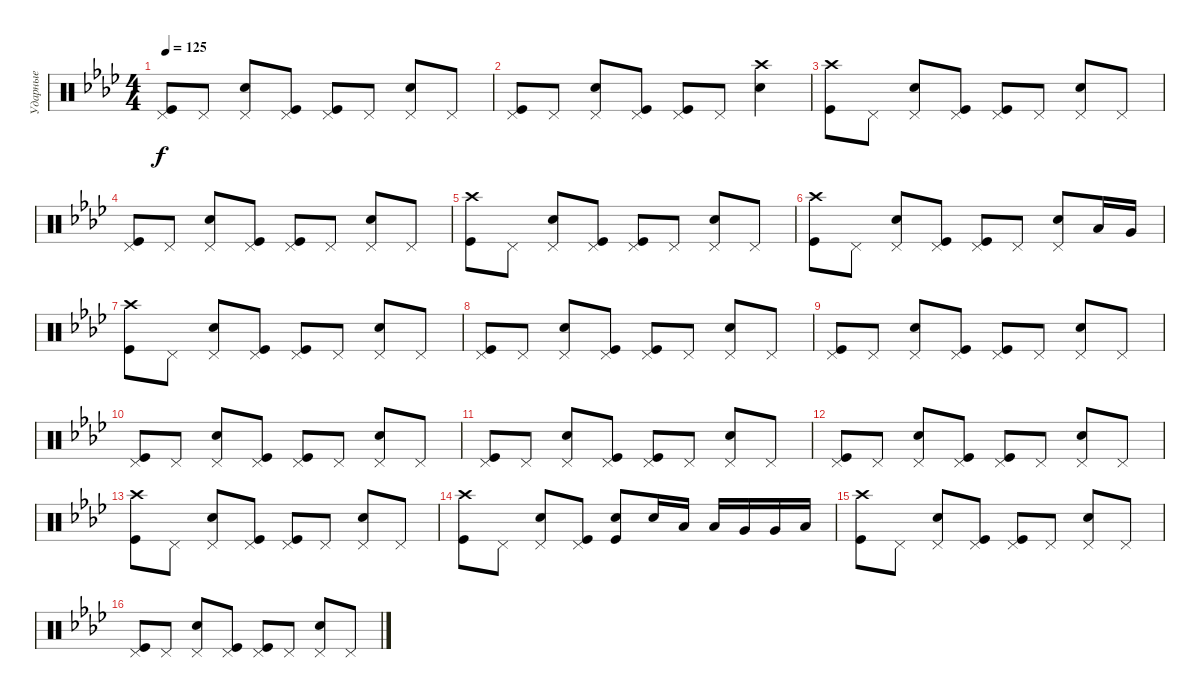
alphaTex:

\track ("Ударные" "Ударные") {solo instrument percussion}
\staff {score}
\articulation defaults
\ts (4 4)
\tempo 125
\clef neutral
\ks fminor
("Pedal Hi-Hat (hit)" "Kick (hit)").8{dy f} "Pedal Hi-Hat (hit)".8 ("Pedal Hi-Hat (hit)" "Electric Snare (hit)").8 ("Pedal Hi-Hat (hit)" "Kick (hit)").8 ("Pedal Hi-Hat (hit)" "Kick (hit)").8 "Pedal Hi-Hat (hit)".8 ("Pedal Hi-Hat (hit)" "Electric Snare (hit)").8 "Pedal Hi-Hat (hit)".8 |
("Pedal Hi-Hat (hit)" "Kick (hit)").8 "Pedal Hi-Hat (hit)".8 ("Pedal Hi-Hat (hit)" "Electric Snare (hit)").8 ("Pedal Hi-Hat (hit)" "Kick (hit)").8 ("Pedal Hi-Hat (hit)" "Kick (hit)").8 "Pedal Hi-Hat (hit)".8 ("Crash high (hit)" "Electric Snare (hit)").4 |
("Crash high (hit)" "Kick (hit)").8 "Pedal Hi-Hat (hit)".8 ("Pedal Hi-Hat (hit)" "Electric Snare (hit)").8 ("Pedal Hi-Hat (hit)" "Kick (hit)").8 ("Pedal Hi-Hat (hit)" "Kick (hit)").8 "Pedal Hi-Hat (hit)".8 ("Pedal Hi-Hat (hit)" "Electric Snare (hit)").8 "Pedal Hi-Hat (hit)".8 |
("Pedal Hi-Hat (hit)" "Kick (hit)").8 "Pedal Hi-Hat (hit)".8 ("Pedal Hi-Hat (hit)" "Electric Snare (hit)").8 ("Pedal Hi-Hat (hit)" "Kick (hit)").8 ("Pedal Hi-Hat (hit)" "Kick (hit)").8 "Pedal Hi-Hat (hit)".8 ("Pedal Hi-Hat (hit)" "Electric Snare (hit)").8 "Pedal Hi-Hat (hit)".8 |
("Crash high (hit)" "Kick (hit)").8 "Pedal Hi-Hat (hit)".8 ("Pedal Hi-Hat (hit)" "Electric Snare (hit)").8 ("Pedal Hi-Hat (hit)" "Kick (hit)").8 ("Pedal Hi-Hat (hit)" "Kick (hit)").8 "Pedal Hi-Hat (hit)".8 ("Pedal Hi-Hat (hit)" "Electric Snare (hit)").8 "Pedal Hi-Hat (hit)".8 |
("Crash high (hit)" "Kick (hit)").8 "Pedal Hi-Hat (hit)".8 ("Pedal Hi-Hat (hit)" "Electric Snare (hit)").8 ("Pedal Hi-Hat (hit)" "Kick (hit)").8 ("Pedal Hi-Hat (hit)" "Kick (hit)").8 "Pedal Hi-Hat (hit)".8 ("Pedal Hi-Hat (hit)" "Electric Snare (hit)").8 "Low Floor Tom (hit)".16 "Very Low Tom (hit)".16 |
("Crash high (hit)" "Kick (hit)").8 "Pedal Hi-Hat (hit)".8 ("Pedal Hi-Hat (hit)" "Electric Snare (hit)").8 ("Pedal Hi-Hat (hit)" "Kick (hit)").8 ("Pedal Hi-Hat (hit)" "Kick (hit)").8 "Pedal Hi-Hat (hit)".8 ("Pedal Hi-Hat (hit)" "Electric Snare (hit)").8 "Pedal Hi-Hat (hit)".8 |
("Pedal Hi-Hat (hit)" "Kick (hit)").8 "Pedal Hi-Hat (hit)".8 ("Pedal Hi-Hat (hit)" "Electric Snare (hit)").8 ("Pedal Hi-Hat (hit)" "Kick (hit)").8 ("Pedal Hi-Hat (hit)" "Kick (hit)").8 "Pedal Hi-Hat (hit)".8 ("Pedal Hi-Hat (hit)" "Electric Snare (hit)").8 "Pedal Hi-Hat (hit)".8 |
("Pedal Hi-Hat (hit)" "Kick (hit)").8 "Pedal Hi-Hat (hit)".8 ("Pedal Hi-Hat (hit)" "Electric Snare (hit)").8 ("Pedal Hi-Hat (hit)" "Kick (hit)").8 ("Pedal Hi-Hat (hit)" "Kick (hit)").8 "Pedal Hi-Hat (hit)".8 ("Pedal Hi-Hat (hit)" "Electric Snare (hit)").8 "Pedal Hi-Hat (hit)".8 |
("Pedal Hi-Hat (hit)" "Kick (hit)").8 "Pedal Hi-Hat (hit)".8 ("Pedal Hi-Hat (hit)" "Electric Snare (hit)").8 ("Pedal Hi-Hat (hit)" "Kick (hit)").8 ("Pedal Hi-Hat (hit)" "Kick (hit)").8 "Pedal Hi-Hat (hit)".8 ("Pedal Hi-Hat (hit)" "Electric Snare (hit)").8 "Pedal Hi-Hat (hit)".8 |
("Pedal Hi-Hat (hit)" "Kick (hit)").8 "Pedal Hi-Hat (hit)".8 ("Pedal Hi-Hat (hit)" "Electric Snare (hit)").8 ("Pedal Hi-Hat (hit)" "Kick (hit)").8 ("Pedal Hi-Hat (hit)" "Kick (hit)").8 "Pedal Hi-Hat (hit)".8 ("Pedal Hi-Hat (hit)" "Electric Snare (hit)").8 "Pedal Hi-Hat (hit)".8 |
("Pedal Hi-Hat (hit)" "Kick (hit)").8 "Pedal Hi-Hat (hit)".8 ("Pedal Hi-Hat (hit)" "Electric Snare (hit)").8 ("Pedal Hi-Hat (hit)" "Kick (hit)").8 ("Pedal Hi-Hat (hit)" "Kick (hit)").8 "Pedal Hi-Hat (hit)".8 ("Pedal Hi-Hat (hit)" "Electric Snare (hit)").8 "Pedal Hi-Hat (hit)".8 |
("Crash high (hit)" "Kick (hit)").8 "Pedal Hi-Hat (hit)".8 ("Pedal Hi-Hat (hit)" "Electric Snare (hit)").8 ("Pedal Hi-Hat (hit)" "Kick (hit)").8 ("Pedal Hi-Hat (hit)" "Kick (hit)").8 "Pedal Hi-Hat (hit)".8 ("Pedal Hi-Hat (hit)" "Electric Snare (hit)").8 "Pedal Hi-Hat (hit)".8 |
("Crash high (hit)" "Kick (hit)").8 "Pedal Hi-Hat (hit)".8 ("Pedal Hi-Hat (hit)" "Electric Snare (hit)").8 ("Pedal Hi-Hat (hit)" "Kick (hit)").8 ("Electric Snare (hit)" "Kick (hit)").8 "Electric Snare (hit)".16 "Low Floor Tom (hit)".16 "Low Floor Tom (hit)".16 "Very Low Tom (hit)".16 "Very Low Tom (hit)".16 "Low Tom (hit)".16 |
("Crash high (hit)" "Kick (hit)").8 "Pedal Hi-Hat (hit)".8 ("Pedal Hi-Hat (hit)" "Electric Snare (hit)").8 ("Pedal Hi-Hat (hit)" "Kick (hit)").8 ("Pedal Hi-Hat (hit)" "Kick (hit)").8 "Pedal Hi-Hat (hit)".8 ("Pedal Hi-Hat (hit)" "Electric Snare (hit)").8 "Pedal Hi-Hat (hit)".8 |
("Pedal Hi-Hat (hit)" "Kick (hit)").8 "Pedal Hi-Hat (hit)".8 ("Pedal Hi-Hat (hit)" "Electric Snare (hit)").8 ("Pedal Hi-Hat (hit)" "Kick (hit)").8 ("Pedal Hi-Hat (hit)" "Kick (hit)").8 "Pedal Hi-Hat (hit)".8 ("Pedal Hi-Hat (hit)" "Electric Snare (hit)").8 "Pedal Hi-Hat (hit)".8
